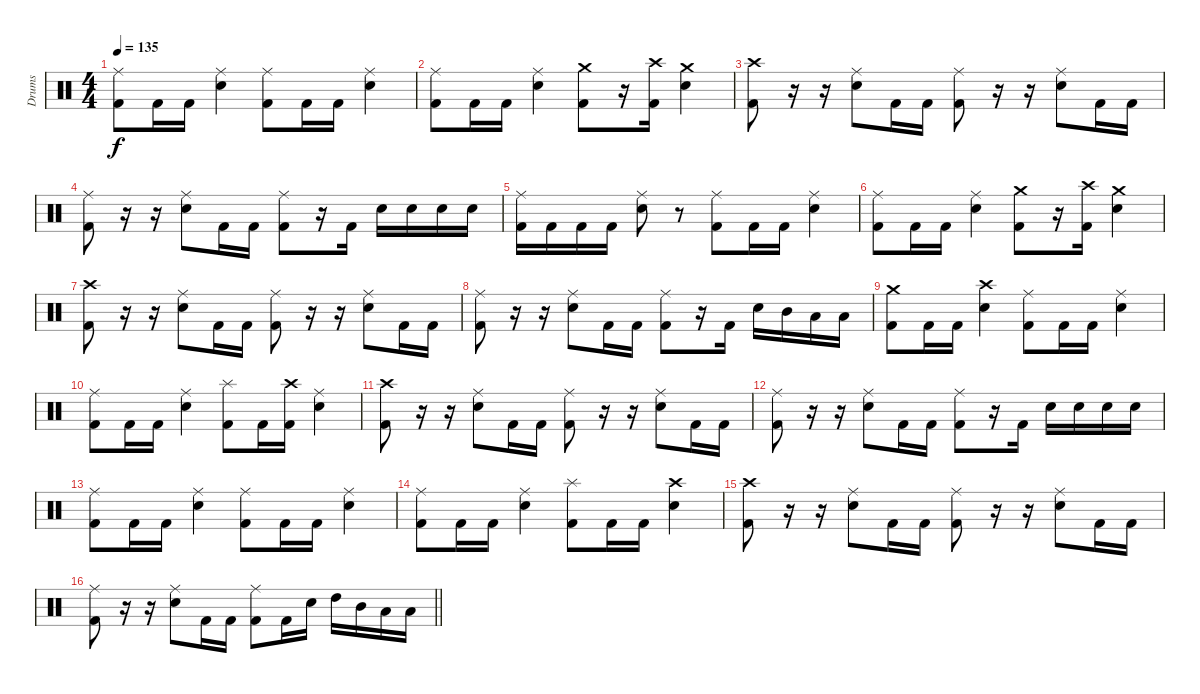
\track ("Drums" "Drums") {instrument percussion}
\staff {score}
\articulation defaults
\ts (4 4)
\tempo 135
\clef neutral
\ks c
("Ride (middle)" "Kick (hit) 2").8{dy f} "Kick (hit) 2".16 "Kick (hit) 2".16 ("Ride (middle)" "Electric Snare (hit)").4 ("Ride (middle)" "Kick (hit) 2").8 "Kick (hit) 2".16 "Kick (hit) 2".16 ("Ride (middle)" "Electric Snare (hit)").4 |
("Ride (middle)" "Kick (hit) 2").8 "Kick (hit) 2".16 "Kick (hit) 2".16 ("Ride (middle)" "Electric Snare (hit)").4 ("Crash medium (hit)" "Kick (hit) 2").8 r.16 ("Crash high (hit)" "Kick (hit) 2").16 ("Crash medium (hit)" "Electric Snare (hit)").4 |
("Crash high (hit)" "Kick (hit) 2").8 r.16 r.16 ("Ride (middle)" "Electric Snare (hit)").8 "Kick (hit) 2".16 "Kick (hit) 2".16 ("Ride (middle)" "Kick (hit) 2").8 r.16 r.16 ("Ride (middle)" "Electric Snare (hit)").8 "Kick (hit) 2".16 "Kick (hit) 2".16 |
("Ride (middle)" "Kick (hit) 2").8 r.16 r.16 ("Ride (middle)" "Electric Snare (hit)").8 "Kick (hit) 2".16 "Kick (hit) 2".16 ("Ride (middle)" "Kick (hit) 2").8 r.16 "Kick (hit) 2".16 "Electric Snare (hit)".16 "Electric Snare (hit)".16 "Electric Snare (hit)".16 "Electric Snare (hit)".16 |
("Ride (middle)" "Kick (hit) 2").16 "Kick (hit) 2".16 "Kick (hit) 2".16 "Kick (hit) 2".16 ("Ride (middle)" "Electric Snare (hit)").8 r.8 ("Ride (middle)" "Kick (hit) 2").8 "Kick (hit) 2".16 "Kick (hit) 2".16 ("Ride (middle)" "Electric Snare (hit)").4 |
("Ride (middle)" "Kick (hit) 2").8 "Kick (hit) 2".16 "Kick (hit) 2".16 ("Ride (middle)" "Electric Snare (hit)").4 ("Crash medium (hit)" "Kick (hit) 2").8 r.16 ("Crash high (hit)" "Kick (hit) 2").16 ("Crash medium (hit)" "Electric Snare (hit)").4 |
("Crash high (hit)" "Kick (hit) 2").8 r.16 r.16 ("Ride (middle)" "Electric Snare (hit)").8 "Kick (hit) 2".16 "Kick (hit) 2".16 ("Ride (middle)" "Kick (hit) 2").8 r.16 r.16 ("Ride (middle)" "Electric Snare (hit)").8 "Kick (hit) 2".16 "Kick (hit) 2".16 |
("Ride (middle)" "Kick (hit) 2").8 r.16 r.16 ("Ride (middle)" "Electric Snare (hit)").8 "Kick (hit) 2".16 "Kick (hit) 2".16 ("Ride (middle)" "Kick (hit) 2").8 r.16 "Kick (hit) 2".16 "Electric Snare (hit)".16 "Mid Tom (hit)".16 "Low Tom (hit)".16 "Low Floor Tom (hit)".16 |
("Crash medium (hit)" "Kick (hit) 2").8 "Kick (hit) 2".16 "Kick (hit) 2".16 ("Crash high (hit)" "Electric Snare (hit)").4 ("Ride (middle)" "Kick (hit) 2").8 "Kick (hit) 2".16 "Kick (hit) 2".16 ("Ride (middle)" "Electric Snare (hit)").4 |
("Ride (middle)" "Kick (hit) 2").8 "Kick (hit) 2".16 "Kick (hit) 2".16 ("Ride (middle)" "Electric Snare (hit)").4 ("Splash (hit)" "Kick (hit) 2").8 "Kick (hit) 2".16 ("Crash high (hit)" "Kick (hit) 2").16 ("Ride (middle)" "Electric Snare (hit)").4 |
("Crash high (hit)" "Kick (hit) 2").8 r.16 r.16 ("Ride (middle)" "Electric Snare (hit)").8 "Kick (hit) 2".16 "Kick (hit) 2".16 ("Ride (middle)" "Kick (hit) 2").8 r.16 r.16 ("Ride (middle)" "Electric Snare (hit)").8 "Kick (hit) 2".16 "Kick (hit) 2".16 |
("Ride (middle)" "Kick (hit) 2").8 r.16 r.16 ("Ride (middle)" "Electric Snare (hit)").8 "Kick (hit) 2".16 "Kick (hit) 2".16 ("Ride (middle)" "Kick (hit) 2").8 r.16 "Kick (hit) 2".16 "Electric Snare (hit)".16 "Electric Snare (hit)".16 "Electric Snare (hit)".16 "Electric Snare (hit)".16 |
("Ride (middle)" "Kick (hit) 2").8 "Kick (hit) 2".16 "Kick (hit) 2".16 ("Ride (middle)" "Electric Snare (hit)").4 ("Ride (middle)" "Kick (hit) 2").8 "Kick (hit) 2".16 "Kick (hit) 2".16 ("Ride (middle)" "Electric Snare (hit)").4 |
("Ride (middle)" "Kick (hit) 2").8 "Kick (hit) 2".16 "Kick (hit) 2".16 ("Ride (middle)" "Electric Snare (hit)").4 ("Splash (hit)" "Kick (hit) 2").8 "Kick (hit) 2".16 "Kick (hit) 2".16 ("Crash high (hit)" "Electric Snare (hit)").4 |
("Crash high (hit)" "Kick (hit) 2").8 r.16 r.16 ("Ride (middle)" "Electric Snare (hit)").8 "Kick (hit) 2".16 "Kick (hit) 2".16 ("Ride (middle)" "Kick (hit) 2").8 r.16 r.16 ("Ride (middle)" "Electric Snare (hit)").8 "Kick (hit) 2".16 "Kick (hit) 2".16 |
\barLineRight lightlight
("Ride (middle)" "Kick (hit) 2").8 r.16 r.16 ("Ride (middle)" "Electric Snare (hit)").8 "Kick (hit) 2".16 "Kick (hit) 2".16 ("Ride (middle)" "Kick (hit) 2").8 "Kick (hit) 2".16 "Electric Snare (hit)".16 "High Tom (hit)".16 "Mid Tom (hit)".16 "Low Tom (hit)".16 "Low Floor Tom (hit)".16
